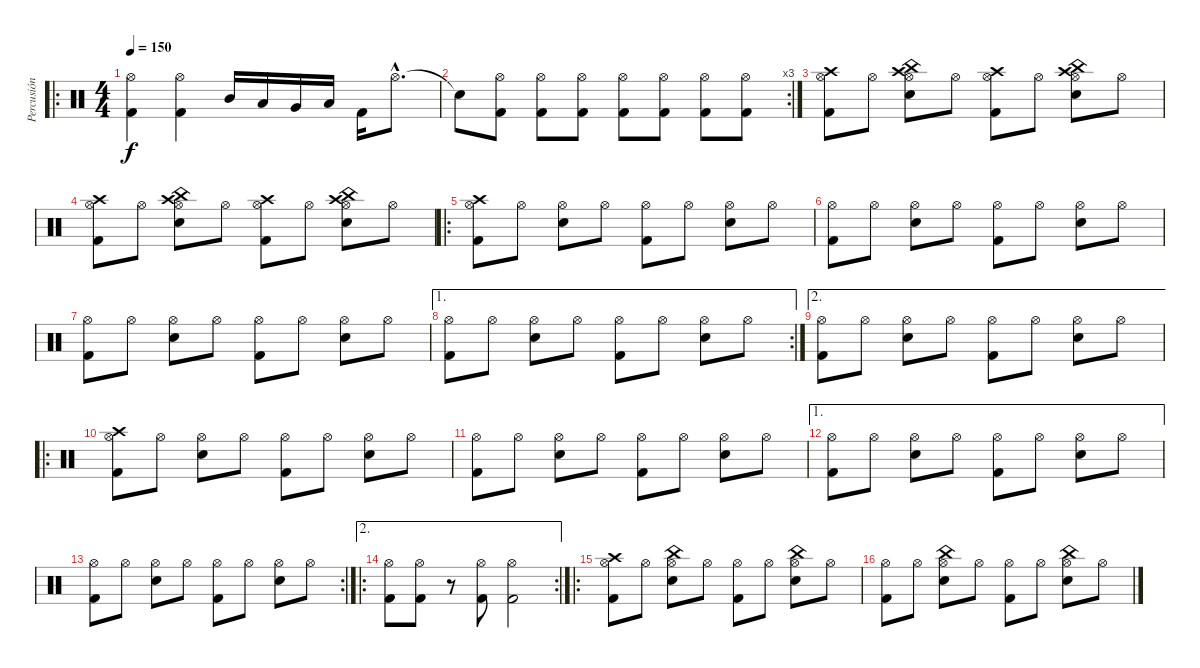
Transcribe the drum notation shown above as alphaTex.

\track ("Percusión (Raymundo Fajardo)" "Percusión ") {instrument percussion}
\staff {score}
\articulation defaults
\ro
\ts (4 4)
\tempo 150
\clef neutral
\ks c
("Hi-Hat (open)" "Kick (hit) 2").4{dy f} ("Hi-Hat (open)" "Kick (hit) 2").4 "Mid Tom (hit)".16 "Low Tom (hit)".16 "Very Low Tom (hit)".16 "Low Floor Tom (hit)".16 "Kick (hit) 2".16 "Hi-Hat (open)"{hac}.8{d} |
\rc 3 "Snare (hit)"{t}.8
("Hi-Hat (open)" "Kick (hit) 2").8 ("Hi-Hat (open)" "Kick (hit) 2").8 ("Hi-Hat (open)" "Kick (hit) 2").8 ("Hi-Hat (open)" "Kick (hit) 2").8 ("Hi-Hat (open)" "Kick (hit) 2").8 ("Hi-Hat (open)" "Kick (hit) 2").8 ("Hi-Hat (open)" "Kick (hit) 2").8 |
("Hi-Hat (open)" "Kick (hit) 2" "Crash high (hit)").8 "Hi-Hat (open)".8 ("Hi-Hat (open)" "Snare (hit) 2" "Crash high (hit)" "China (hit)").8 "Hi-Hat (open)".8 ("Hi-Hat (open)" "Kick (hit) 2" "Crash high (hit)").8 "Hi-Hat (open)".8 ("Hi-Hat (open)" "Snare (hit) 2" "Crash high (hit)" "China (hit)").8 "Hi-Hat (open)".8 |
("Hi-Hat (open)" "Kick (hit) 2" "Crash high (hit)").8 "Hi-Hat (open)".8 ("Hi-Hat (open)" "Snare (hit) 2" "Crash high (hit)" "China (hit)").8 "Hi-Hat (open)".8 ("Hi-Hat (open)" "Kick (hit) 2" "Crash high (hit)").8 "Hi-Hat (open)".8 ("Hi-Hat (open)" "Snare (hit) 2" "Crash high (hit)" "China (hit)").8 "Hi-Hat (open)".8 |
\ro
("Hi-Hat (open)" "Crash high (hit)" "Kick (hit) 2").8 "Hi-Hat (open)".8 ("Hi-Hat (open)" "Snare (hit) 2").8 "Hi-Hat (open)".8 ("Hi-Hat (open)" "Kick (hit) 2").8 "Hi-Hat (open)".8 ("Hi-Hat (open)" "Snare (hit) 2").8 "Hi-Hat (open)".8 |
("Hi-Hat (open)" "Kick (hit) 2").8 "Hi-Hat (open)".8 ("Hi-Hat (open)" "Snare (hit) 2").8 "Hi-Hat (open)".8 ("Hi-Hat (open)" "Kick (hit) 2").8 "Hi-Hat (open)".8 ("Hi-Hat (open)" "Snare (hit) 2").8 "Hi-Hat (open)".8 |
("Hi-Hat (open)" "Kick (hit) 2").8 "Hi-Hat (open)".8 ("Hi-Hat (open)" "Snare (hit) 2").8 "Hi-Hat (open)".8 ("Hi-Hat (open)" "Kick (hit) 2").8 "Hi-Hat (open)".8 ("Hi-Hat (open)" "Snare (hit) 2").8 "Hi-Hat (open)".8 |
\ae 1
\rc 2
("Hi-Hat (open)" "Kick (hit) 2").8 "Hi-Hat (open)".8 ("Hi-Hat (open)" "Snare (hit) 2").8 "Hi-Hat (open)".8 ("Hi-Hat (open)" "Kick (hit) 2").8 "Hi-Hat (open)".8 ("Hi-Hat (open)" "Snare (hit) 2").8 "Hi-Hat (open)".8 |
\ae 2
("Hi-Hat (open)" "Kick (hit) 2").8 "Hi-Hat (open)".8 ("Hi-Hat (open)" "Snare (hit) 2").8 "Hi-Hat (open)".8 ("Hi-Hat (open)" "Kick (hit) 2").8 "Hi-Hat (open)".8 ("Hi-Hat (open)" "Snare (hit) 2").8 "Hi-Hat (open)".8 |
\ro
("Hi-Hat (open)" "Crash high (hit)" "Kick (hit) 2").8 "Hi-Hat (open)".8 ("Hi-Hat (open)" "Snare (hit) 2").8 "Hi-Hat (open)".8 ("Hi-Hat (open)" "Kick (hit) 2").8 "Hi-Hat (open)".8 ("Hi-Hat (open)" "Snare (hit) 2").8 "Hi-Hat (open)".8 |
("Hi-Hat (open)" "Kick (hit) 2").8 "Hi-Hat (open)".8 ("Hi-Hat (open)" "Snare (hit) 2").8 "Hi-Hat (open)".8 ("Hi-Hat (open)" "Kick (hit) 2").8 "Hi-Hat (open)".8 ("Hi-Hat (open)" "Snare (hit) 2").8 "Hi-Hat (open)".8 |
\ae 1
("Hi-Hat (open)" "Kick (hit) 2").8 "Hi-Hat (open)".8 ("Hi-Hat (open)" "Snare (hit) 2").8 "Hi-Hat (open)".8 ("Hi-Hat (open)" "Kick (hit) 2").8 "Hi-Hat (open)".8 ("Hi-Hat (open)" "Snare (hit) 2").8 "Hi-Hat (open)".8 |
\rc 2
("Hi-Hat (open)" "Kick (hit) 2").8 "Hi-Hat (open)".8 ("Hi-Hat (open)" "Snare (hit) 2").8 "Hi-Hat (open)".8 ("Hi-Hat (open)" "Kick (hit) 2").8 "Hi-Hat (open)".8 ("Hi-Hat (open)" "Snare (hit) 2").8 "Hi-Hat (open)".8 |
\ae 2
\ro
\rc 2
("Kick (hit) 2" "Hi-Hat (open)").8 ("Kick (hit) 2" "Hi-Hat (open)").8 r.8 ("Kick (hit) 2" "Hi-Hat (open)").8 ("Kick (hit) 2" "Hi-Hat (open)").2 |
\ro
("Hi-Hat (open)" "Crash high (hit)" "Kick (hit) 2").8 "Hi-Hat (open)".8 ("Hi-Hat (open)" "Snare (hit) 2" "China (hit)").8 "Hi-Hat (open)".8 ("Hi-Hat (open)" "Kick (hit) 2").8 "Hi-Hat (open)".8 ("Hi-Hat (open)" "Snare (hit) 2" "China (hit)").8 "Hi-Hat (open)".8 |
("Hi-Hat (open)" "Kick (hit) 2").8 "Hi-Hat (open)".8 ("Hi-Hat (open)" "Snare (hit) 2" "China (hit)").8 "Hi-Hat (open)".8 ("Hi-Hat (open)" "Kick (hit) 2").8 "Hi-Hat (open)".8 ("Hi-Hat (open)" "Snare (hit) 2" "China (hit)").8 "Hi-Hat (open)".8
